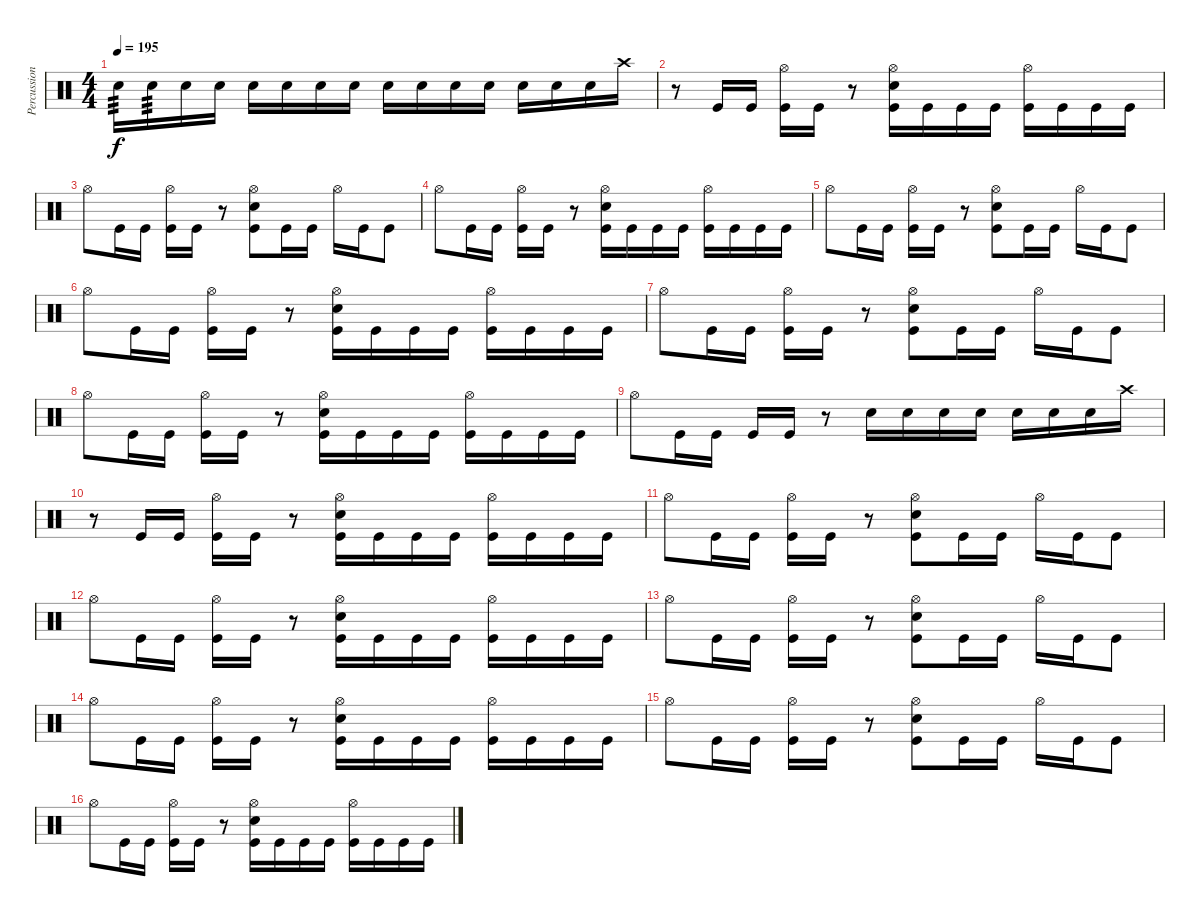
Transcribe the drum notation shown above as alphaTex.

\track ("Percussion" "Percussion") {instrument percussion}
\staff {score}
\articulation defaults
\ts (4 4)
\tempo 195
\tempo 132
\tempo 195
\clef neutral
\ks c "Electric Snare (hit)".16{tp 3 dy f} "Electric Snare (hit)".16{tp 3} "Electric Snare (hit)".16 "Electric Snare (hit)".16 "Electric Snare (hit)".16 "Electric Snare (hit)".16 "Electric Snare (hit)".16 "Electric Snare (hit)".16 "Electric Snare (hit)".16 "Electric Snare (hit)".16 "Electric Snare (hit)".16 "Electric Snare (hit)".16 "Electric Snare (hit)".16 "Electric Snare (hit)".16 "Electric Snare (hit)".16 "Crash high (hit)".16
|
r.8 "Kick (hit)".16 "Kick (hit)".16 ("Hi-Hat (open)" "Kick (hit)").16 "Kick (hit)".16 r.8 ("Hi-Hat (open)" "Electric Snare (hit)" "Kick (hit)").16 "Kick (hit)".16 "Kick (hit)".16 "Kick (hit)".16 ("Hi-Hat (open)" "Kick (hit)").16 "Kick (hit)".16 "Kick (hit)".16 "Kick (hit)".16 |
"Hi-Hat (open)".8 "Kick (hit)".16 "Kick (hit)".16 ("Hi-Hat (open)" "Kick (hit)").16 "Kick (hit)".16 r.8 ("Hi-Hat (open)" "Electric Snare (hit)" "Kick (hit)").8 "Kick (hit)".16 "Kick (hit)".16 "Hi-Hat (open)".16 "Kick (hit)".16 "Kick (hit)".8 |
"Hi-Hat (open)".8 "Kick (hit)".16 "Kick (hit)".16 ("Hi-Hat (open)" "Kick (hit)").16 "Kick (hit)".16 r.8 ("Hi-Hat (open)" "Electric Snare (hit)" "Kick (hit)").16 "Kick (hit)".16 "Kick (hit)".16 "Kick (hit)".16 ("Hi-Hat (open)" "Kick (hit)").16 "Kick (hit)".16 "Kick (hit)".16 "Kick (hit)".16 |
"Hi-Hat (open)".8 "Kick (hit)".16 "Kick (hit)".16 ("Hi-Hat (open)" "Kick (hit)").16 "Kick (hit)".16 r.8 ("Hi-Hat (open)" "Electric Snare (hit)" "Kick (hit)").8 "Kick (hit)".16 "Kick (hit)".16 "Hi-Hat (open)".16 "Kick (hit)".16 "Kick (hit)".8 |
"Hi-Hat (open)".8 "Kick (hit)".16 "Kick (hit)".16 ("Hi-Hat (open)" "Kick (hit)").16 "Kick (hit)".16 r.8 ("Hi-Hat (open)" "Electric Snare (hit)" "Kick (hit)").16 "Kick (hit)".16 "Kick (hit)".16 "Kick (hit)".16 ("Hi-Hat (open)" "Kick (hit)").16 "Kick (hit)".16 "Kick (hit)".16 "Kick (hit)".16 |
"Hi-Hat (open)".8 "Kick (hit)".16 "Kick (hit)".16 ("Hi-Hat (open)" "Kick (hit)").16 "Kick (hit)".16 r.8 ("Hi-Hat (open)" "Electric Snare (hit)" "Kick (hit)").8 "Kick (hit)".16 "Kick (hit)".16 "Hi-Hat (open)".16 "Kick (hit)".16 "Kick (hit)".8 |
"Hi-Hat (open)".8 "Kick (hit)".16 "Kick (hit)".16 ("Hi-Hat (open)" "Kick (hit)").16 "Kick (hit)".16 r.8 ("Hi-Hat (open)" "Electric Snare (hit)" "Kick (hit)").16 "Kick (hit)".16 "Kick (hit)".16 "Kick (hit)".16 ("Hi-Hat (open)" "Kick (hit)").16 "Kick (hit)".16 "Kick (hit)".16 "Kick (hit)".16 |
"Hi-Hat (open)".8 "Kick (hit)".16 "Kick (hit)".16 "Kick (hit)".16 "Kick (hit)".16 r.8 "Electric Snare (hit)".16 "Electric Snare (hit)".16 "Electric Snare (hit)".16 "Electric Snare (hit)".16 "Electric Snare (hit)".16 "Electric Snare (hit)".16 "Electric Snare (hit)".16 "Crash high (hit)".16 |
r.8 "Kick (hit)".16 "Kick (hit)".16 ("Hi-Hat (open)" "Kick (hit)").16 "Kick (hit)".16 r.8 ("Hi-Hat (open)" "Electric Snare (hit)" "Kick (hit)").16 "Kick (hit)".16 "Kick (hit)".16 "Kick (hit)".16 ("Hi-Hat (open)" "Kick (hit)").16 "Kick (hit)".16 "Kick (hit)".16 "Kick (hit)".16 |
"Hi-Hat (open)".8 "Kick (hit)".16 "Kick (hit)".16 ("Hi-Hat (open)" "Kick (hit)").16 "Kick (hit)".16 r.8 ("Hi-Hat (open)" "Electric Snare (hit)" "Kick (hit)").8 "Kick (hit)".16 "Kick (hit)".16 "Hi-Hat (open)".16 "Kick (hit)".16 "Kick (hit)".8 |
"Hi-Hat (open)".8 "Kick (hit)".16 "Kick (hit)".16 ("Hi-Hat (open)" "Kick (hit)").16 "Kick (hit)".16 r.8 ("Hi-Hat (open)" "Electric Snare (hit)" "Kick (hit)").16 "Kick (hit)".16 "Kick (hit)".16 "Kick (hit)".16 ("Hi-Hat (open)" "Kick (hit)").16 "Kick (hit)".16 "Kick (hit)".16 "Kick (hit)".16 |
"Hi-Hat (open)".8 "Kick (hit)".16 "Kick (hit)".16 ("Hi-Hat (open)" "Kick (hit)").16 "Kick (hit)".16 r.8 ("Hi-Hat (open)" "Electric Snare (hit)" "Kick (hit)").8 "Kick (hit)".16 "Kick (hit)".16 "Hi-Hat (open)".16 "Kick (hit)".16 "Kick (hit)".8 |
"Hi-Hat (open)".8 "Kick (hit)".16 "Kick (hit)".16 ("Hi-Hat (open)" "Kick (hit)").16 "Kick (hit)".16 r.8 ("Hi-Hat (open)" "Electric Snare (hit)" "Kick (hit)").16 "Kick (hit)".16 "Kick (hit)".16 "Kick (hit)".16 ("Hi-Hat (open)" "Kick (hit)").16 "Kick (hit)".16 "Kick (hit)".16 "Kick (hit)".16 |
"Hi-Hat (open)".8 "Kick (hit)".16 "Kick (hit)".16 ("Hi-Hat (open)" "Kick (hit)").16 "Kick (hit)".16 r.8 ("Hi-Hat (open)" "Electric Snare (hit)" "Kick (hit)").8 "Kick (hit)".16 "Kick (hit)".16 "Hi-Hat (open)".16 "Kick (hit)".16 "Kick (hit)".8 |
"Hi-Hat (open)".8 "Kick (hit)".16 "Kick (hit)".16 ("Hi-Hat (open)" "Kick (hit)").16 "Kick (hit)".16 r.8 ("Hi-Hat (open)" "Electric Snare (hit)" "Kick (hit)").16 "Kick (hit)".16 "Kick (hit)".16 "Kick (hit)".16 ("Hi-Hat (open)" "Kick (hit)").16 "Kick (hit)".16 "Kick (hit)".16 "Kick (hit)".16
